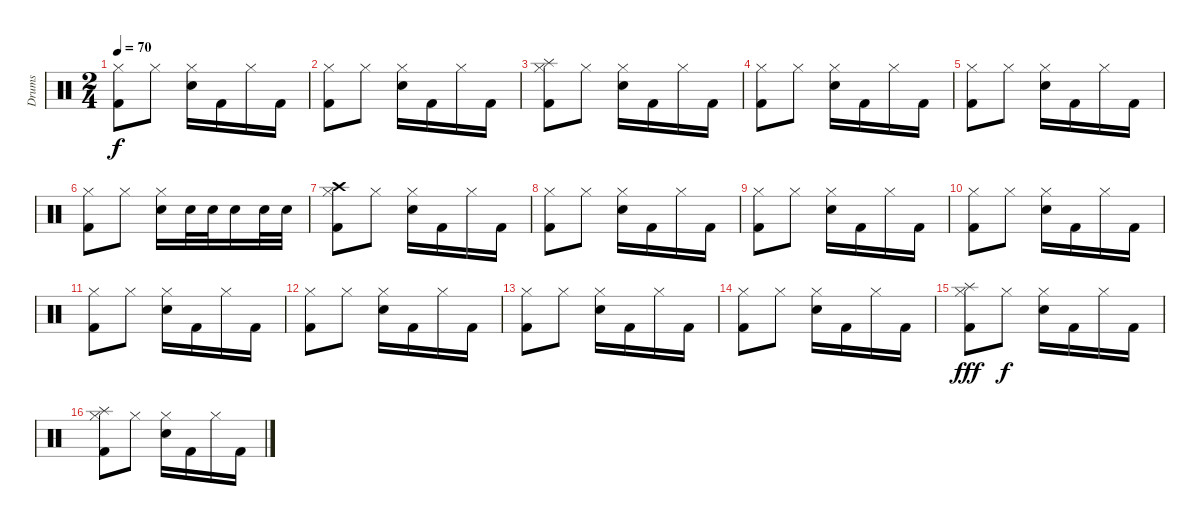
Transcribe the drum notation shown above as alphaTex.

\track ("Drums" "Drums") {instrument percussion}
\staff {score}
\articulation defaults
\ts (2 4)
\tempo 70
\clef neutral
\ks c
("Hi-Hat (closed)" "Kick (hit) 2").8{dy f} "Hi-Hat (closed)".8 ("Hi-Hat (closed)" "Electric Snare (hit)").16 "Kick (hit) 2".16 "Hi-Hat (closed)".16 "Kick (hit) 2".16 |
("Hi-Hat (closed)" "Kick (hit) 2").8 "Hi-Hat (closed)".8 ("Hi-Hat (closed)" "Electric Snare (hit)").16 "Kick (hit) 2".16 "Hi-Hat (closed)".16 "Kick (hit) 2".16 |
("Splash (hit)" "Hi-Hat (closed)" "Kick (hit) 2").8 "Hi-Hat (closed)".8 ("Hi-Hat (closed)" "Electric Snare (hit)").16 "Kick (hit) 2".16 "Hi-Hat (closed)".16 "Kick (hit) 2".16 |
("Hi-Hat (closed)" "Kick (hit) 2").8 "Hi-Hat (closed)".8 ("Hi-Hat (closed)" "Electric Snare (hit)").16 "Kick (hit) 2".16 "Hi-Hat (closed)".16 "Kick (hit) 2".16 |
("Hi-Hat (closed)" "Kick (hit) 2").8 "Hi-Hat (closed)".8 ("Hi-Hat (closed)" "Electric Snare (hit)").16 "Kick (hit) 2".16 "Hi-Hat (closed)".16 "Kick (hit) 2".16 |
("Hi-Hat (closed)" "Kick (hit) 2").8 "Hi-Hat (closed)".8 ("Hi-Hat (closed)" "Electric Snare (hit)").16 "Electric Snare (hit)".32 "Electric Snare (hit)".32 "Electric Snare (hit)".16 "Electric Snare (hit)".32 "Electric Snare (hit)".32 |
("Crash high (hit)" "Hi-Hat (closed)" "Kick (hit) 2").8 "Hi-Hat (closed)".8 ("Hi-Hat (closed)" "Electric Snare (hit)").16 "Kick (hit) 2".16 "Hi-Hat (closed)".16 "Kick (hit) 2".16 |
("Hi-Hat (closed)" "Kick (hit) 2").8 "Hi-Hat (closed)".8 ("Hi-Hat (closed)" "Electric Snare (hit)").16 "Kick (hit) 2".16 "Hi-Hat (closed)".16 "Kick (hit) 2".16 |
("Hi-Hat (closed)" "Kick (hit) 2").8 "Hi-Hat (closed)".8 ("Hi-Hat (closed)" "Electric Snare (hit)").16 "Kick (hit) 2".16 "Hi-Hat (closed)".16 "Kick (hit) 2".16 |
("Hi-Hat (closed)" "Kick (hit) 2").8 "Hi-Hat (closed)".8 ("Hi-Hat (closed)" "Electric Snare (hit)").16 "Kick (hit) 2".16 "Hi-Hat (closed)".16 "Kick (hit) 2".16 |
("Hi-Hat (closed)" "Kick (hit) 2").8 "Hi-Hat (closed)".8 ("Hi-Hat (closed)" "Electric Snare (hit)").16 "Kick (hit) 2".16 "Hi-Hat (closed)".16 "Kick (hit) 2".16 |
("Hi-Hat (closed)" "Kick (hit) 2").8 "Hi-Hat (closed)".8 ("Hi-Hat (closed)" "Electric Snare (hit)").16 "Kick (hit) 2".16 "Hi-Hat (closed)".16 "Kick (hit) 2".16 |
("Hi-Hat (closed)" "Kick (hit) 2").8 "Hi-Hat (closed)".8 ("Hi-Hat (closed)" "Electric Snare (hit)").16 "Kick (hit) 2".16 "Hi-Hat (closed)".16 "Kick (hit) 2".16 |
("Hi-Hat (closed)" "Kick (hit) 2").8 "Hi-Hat (closed)".8 ("Hi-Hat (closed)" "Electric Snare (hit)").16 "Kick (hit) 2".16 "Hi-Hat (closed)".16 "Kick (hit) 2".16 |
("Splash (hit)" "Hi-Hat (closed)" "Kick (hit) 2").8{dy fff} "Hi-Hat (closed)".8{dy f} ("Hi-Hat (closed)" "Electric Snare (hit)").16 "Kick (hit) 2".16 "Hi-Hat (closed)".16 "Kick (hit) 2".16 |
("Splash (hit)" "Hi-Hat (closed)" "Kick (hit) 2").8 "Hi-Hat (closed)".8 ("Hi-Hat (closed)" "Electric Snare (hit)").16 "Kick (hit) 2".16 "Hi-Hat (closed)".16 "Kick (hit) 2".16
